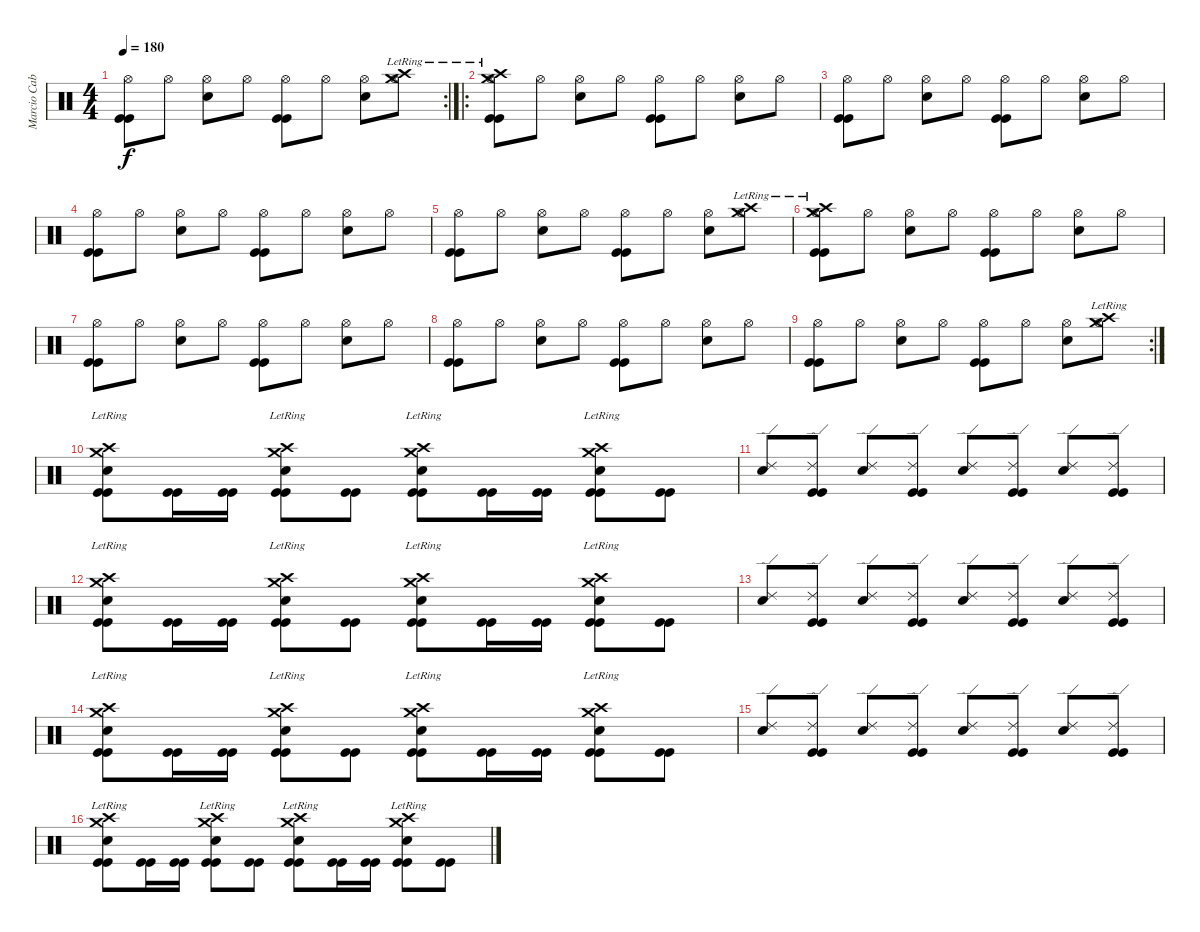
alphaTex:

\track ("Marcio Cabrita" "Marcio Cab") {instrument percussion}
\staff {score}
\articulation defaults
\rc 2
\ts (4 4)
\tempo 180
\clef neutral
\ks c
("Hi-Hat (open)" "Kick (hit)" "Kick (hit)").8{dy f} "Hi-Hat (open)".8 ("Snare (hit) 2" "Hi-Hat (open)").8 "Hi-Hat (open)".8 ("Hi-Hat (open)" "Kick (hit)" "Kick (hit)").8 "Hi-Hat (open)".8 ("Snare (hit) 2" "Hi-Hat (open)").8 ("Crash high (hit)"{lr} "Crash medium (hit)"{lr} "Hi-Hat (open)").8 |
\ro
("Crash high (hit)"{lr} "Crash medium (hit)"{lr} "Hi-Hat (open)" "Kick (hit)" "Kick (hit)").8 "Hi-Hat (open)".8 ("Snare (hit) 2" "Hi-Hat (open)").8 "Hi-Hat (open)".8 ("Hi-Hat (open)" "Kick (hit)" "Kick (hit)").8 "Hi-Hat (open)".8 ("Snare (hit) 2" "Hi-Hat (open)").8 "Hi-Hat (open)".8 |
("Hi-Hat (open)" "Kick (hit)" "Kick (hit)").8 "Hi-Hat (open)".8 ("Snare (hit) 2" "Hi-Hat (open)").8 "Hi-Hat (open)".8 ("Hi-Hat (open)" "Kick (hit)" "Kick (hit)").8 "Hi-Hat (open)".8 ("Snare (hit) 2" "Hi-Hat (open)").8 "Hi-Hat (open)".8 |
("Hi-Hat (open)" "Kick (hit)" "Kick (hit)").8 "Hi-Hat (open)".8 ("Snare (hit) 2" "Hi-Hat (open)").8 "Hi-Hat (open)".8 ("Hi-Hat (open)" "Kick (hit)" "Kick (hit)").8 "Hi-Hat (open)".8 ("Snare (hit) 2" "Hi-Hat (open)").8 "Hi-Hat (open)".8 |
("Hi-Hat (open)" "Kick (hit)" "Kick (hit)").8 "Hi-Hat (open)".8 ("Snare (hit) 2" "Hi-Hat (open)").8 "Hi-Hat (open)".8 ("Hi-Hat (open)" "Kick (hit)" "Kick (hit)").8 "Hi-Hat (open)".8 ("Snare (hit) 2" "Hi-Hat (open)").8 ("Crash high (hit)"{lr} "Crash medium (hit)"{lr} "Hi-Hat (open)").8 |
("Crash high (hit)"{lr} "Crash medium (hit)"{lr} "Hi-Hat (open)" "Kick (hit)" "Kick (hit)").8 "Hi-Hat (open)".8 ("Snare (hit) 2" "Hi-Hat (open)").8 "Hi-Hat (open)".8 ("Hi-Hat (open)" "Kick (hit)" "Kick (hit)").8 "Hi-Hat (open)".8 ("Snare (hit) 2" "Hi-Hat (open)").8 "Hi-Hat (open)".8 |
("Hi-Hat (open)" "Kick (hit)" "Kick (hit)").8 "Hi-Hat (open)".8 ("Snare (hit) 2" "Hi-Hat (open)").8 "Hi-Hat (open)".8 ("Hi-Hat (open)" "Kick (hit)" "Kick (hit)").8 "Hi-Hat (open)".8 ("Snare (hit) 2" "Hi-Hat (open)").8 "Hi-Hat (open)".8 |
("Hi-Hat (open)" "Kick (hit)" "Kick (hit)").8 "Hi-Hat (open)".8 ("Snare (hit) 2" "Hi-Hat (open)").8 "Hi-Hat (open)".8 ("Hi-Hat (open)" "Kick (hit)" "Kick (hit)").8 "Hi-Hat (open)".8 ("Snare (hit) 2" "Hi-Hat (open)").8 "Hi-Hat (open)".8 |
\rc 2
("Hi-Hat (open)" "Kick (hit)" "Kick (hit)").8 "Hi-Hat (open)".8 ("Snare (hit) 2" "Hi-Hat (open)").8 "Hi-Hat (open)".8 ("Hi-Hat (open)" "Kick (hit)" "Kick (hit)").8 "Hi-Hat (open)".8 ("Snare (hit) 2" "Hi-Hat (open)").8 ("Crash high (hit)"{lr} "Crash medium (hit)"{lr} "Hi-Hat (open)").8 |
("Crash high (hit)"{lr} "Crash medium (hit)"{lr} "Snare (hit) 2" "Kick (hit)" "Kick (hit)").8 ("Kick (hit)" "Kick (hit)").16 ("Kick (hit)" "Kick (hit)").16 ("Crash high (hit)"{lr} "Crash medium (hit)"{lr} "Snare (hit) 2" "Kick (hit)" "Kick (hit)").8 ("Kick (hit)" "Kick (hit)").8 ("Crash high (hit)"{lr} "Crash medium (hit)"{lr} "Snare (hit) 2" "Kick (hit)" "Kick (hit)").8 ("Kick (hit)" "Kick (hit)").16 ("Kick (hit)" "Kick (hit)").16 ("Crash high (hit)"{lr} "Crash medium (hit)"{lr} "Snare (hit) 2" "Kick (hit)" "Kick (hit)").8 ("Kick (hit)" "Kick (hit)").8 |
("Snare (hit) 2" "Ride (edge) 2").8 ("Ride (edge) 2" "Kick (hit)" "Kick (hit)").8 ("Snare (hit) 2" "Ride (edge) 2").8 ("Ride (edge) 2" "Kick (hit)" "Kick (hit)").8 ("Snare (hit) 2" "Ride (edge) 2").8 ("Ride (edge) 2" "Kick (hit)" "Kick (hit)").8 ("Snare (hit) 2" "Ride (edge) 2").8 ("Ride (edge) 2" "Kick (hit)" "Kick (hit)").8 |
("Crash high (hit)"{lr} "Crash medium (hit)"{lr} "Snare (hit) 2" "Kick (hit)" "Kick (hit)").8 ("Kick (hit)" "Kick (hit)").16 ("Kick (hit)" "Kick (hit)").16 ("Crash high (hit)"{lr} "Crash medium (hit)"{lr} "Snare (hit) 2" "Kick (hit)" "Kick (hit)").8 ("Kick (hit)" "Kick (hit)").8 ("Crash high (hit)"{lr} "Crash medium (hit)"{lr} "Snare (hit) 2" "Kick (hit)" "Kick (hit)").8 ("Kick (hit)" "Kick (hit)").16 ("Kick (hit)" "Kick (hit)").16 ("Crash high (hit)"{lr} "Crash medium (hit)"{lr} "Snare (hit) 2" "Kick (hit)" "Kick (hit)").8 ("Kick (hit)" "Kick (hit)").8 |
("Snare (hit) 2" "Ride (edge) 2").8 ("Ride (edge) 2" "Kick (hit)" "Kick (hit)").8 ("Snare (hit) 2" "Ride (edge) 2").8 ("Ride (edge) 2" "Kick (hit)" "Kick (hit)").8 ("Snare (hit) 2" "Ride (edge) 2").8 ("Ride (edge) 2" "Kick (hit)" "Kick (hit)").8 ("Snare (hit) 2" "Ride (edge) 2").8 ("Ride (edge) 2" "Kick (hit)" "Kick (hit)").8 |
("Crash high (hit)"{lr} "Crash medium (hit)"{lr} "Snare (hit) 2" "Kick (hit)" "Kick (hit)").8 ("Kick (hit)" "Kick (hit)").16 ("Kick (hit)" "Kick (hit)").16 ("Crash high (hit)"{lr} "Crash medium (hit)"{lr} "Snare (hit) 2" "Kick (hit)" "Kick (hit)").8 ("Kick (hit)" "Kick (hit)").8 ("Crash high (hit)"{lr} "Crash medium (hit)"{lr} "Snare (hit) 2" "Kick (hit)" "Kick (hit)").8 ("Kick (hit)" "Kick (hit)").16 ("Kick (hit)" "Kick (hit)").16 ("Crash high (hit)"{lr} "Crash medium (hit)"{lr} "Snare (hit) 2" "Kick (hit)" "Kick (hit)").8 ("Kick (hit)" "Kick (hit)").8 |
("Snare (hit) 2" "Ride (edge) 2").8 ("Ride (edge) 2" "Kick (hit)" "Kick (hit)").8 ("Snare (hit) 2" "Ride (edge) 2").8 ("Ride (edge) 2" "Kick (hit)" "Kick (hit)").8 ("Snare (hit) 2" "Ride (edge) 2").8 ("Ride (edge) 2" "Kick (hit)" "Kick (hit)").8 ("Snare (hit) 2" "Ride (edge) 2").8 ("Ride (edge) 2" "Kick (hit)" "Kick (hit)").8 |
("Crash high (hit)"{lr} "Crash medium (hit)"{lr} "Snare (hit) 2" "Kick (hit)" "Kick (hit)").8 ("Kick (hit)" "Kick (hit)").16 ("Kick (hit)" "Kick (hit)").16 ("Crash high (hit)"{lr} "Crash medium (hit)"{lr} "Snare (hit) 2" "Kick (hit)" "Kick (hit)").8 ("Kick (hit)" "Kick (hit)").8 ("Crash high (hit)"{lr} "Crash medium (hit)"{lr} "Snare (hit) 2" "Kick (hit)" "Kick (hit)").8 ("Kick (hit)" "Kick (hit)").16 ("Kick (hit)" "Kick (hit)").16 ("Crash high (hit)"{lr} "Crash medium (hit)"{lr} "Snare (hit) 2" "Kick (hit)" "Kick (hit)").8 ("Kick (hit)" "Kick (hit)").8
